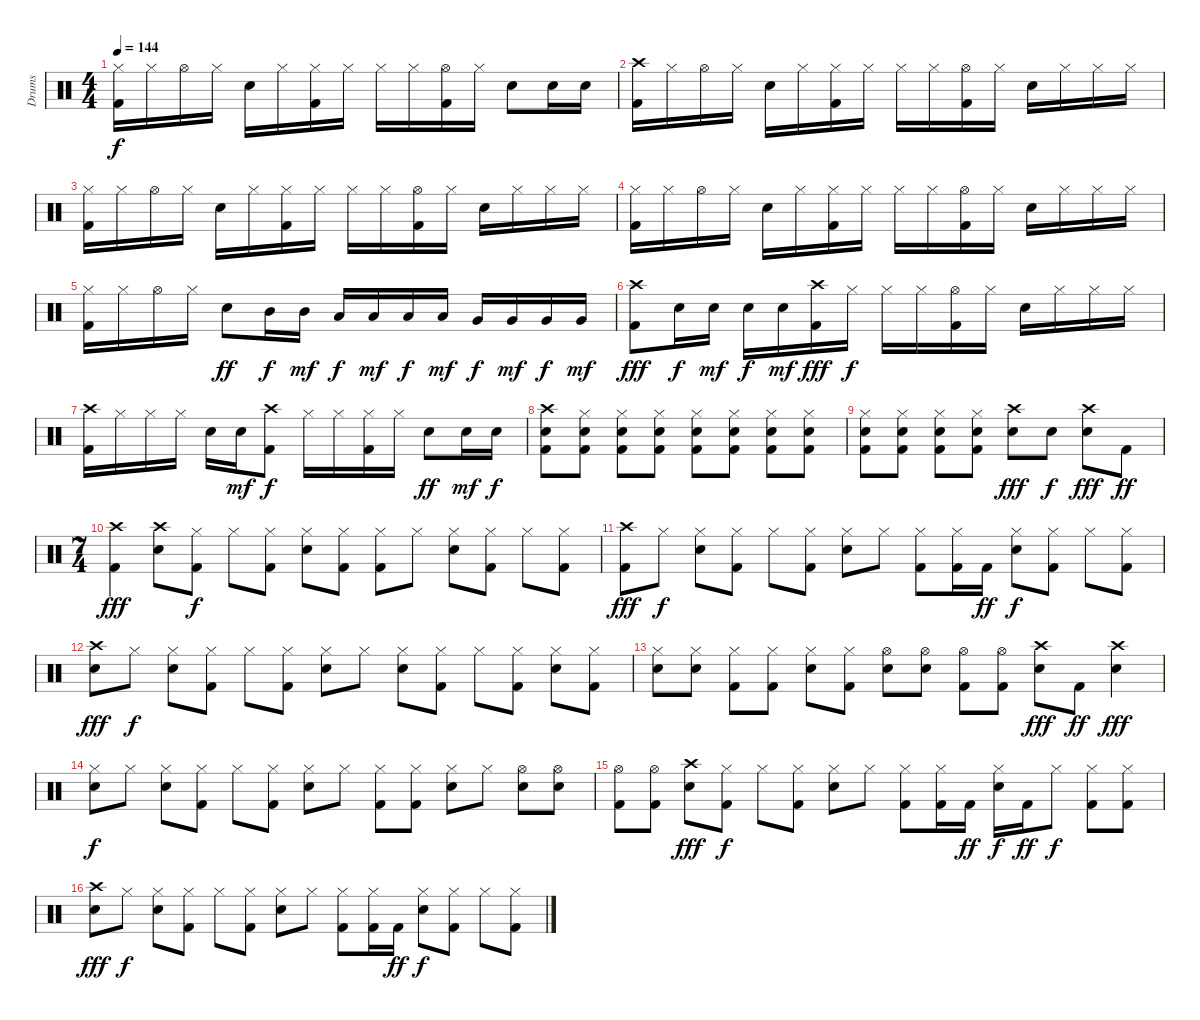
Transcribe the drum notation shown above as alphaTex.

\track ("Drums" "Drums") {instrument percussion}
\staff {score}
\articulation defaults
\ts (4 4)
\tempo 144
\clef neutral
\ks c
("Hi-Hat (closed)" "Kick (hit) 2").16{dy f} "Hi-Hat (closed)".16 "Hi-Hat (open)".16 "Hi-Hat (closed)".16 "Snare (hit) 2".16 "Hi-Hat (closed)".16 ("Hi-Hat (closed)" "Kick (hit) 2").16 "Hi-Hat (closed)".16 "Hi-Hat (closed)".16 "Hi-Hat (closed)".16 ("Hi-Hat (open)" "Kick (hit) 2").16 "Hi-Hat (closed)".16 "Snare (hit) 2".8 "Snare (hit) 2".16 "Snare (hit) 2".16 |
("Crash high (hit)" "Kick (hit) 2").16 "Hi-Hat (closed)".16 "Hi-Hat (open)".16 "Hi-Hat (closed)".16 "Snare (hit) 2".16 "Hi-Hat (closed)".16 ("Hi-Hat (closed)" "Kick (hit) 2").16 "Hi-Hat (closed)".16 "Hi-Hat (closed)".16 "Hi-Hat (closed)".16 ("Hi-Hat (open)" "Kick (hit) 2").16 "Hi-Hat (closed)".16 "Snare (hit) 2".16 "Hi-Hat (closed)".16 "Hi-Hat (closed)".16 "Hi-Hat (closed)".16 |
("Hi-Hat (closed)" "Kick (hit) 2").16 "Hi-Hat (closed)".16 "Hi-Hat (open)".16 "Hi-Hat (closed)".16 "Snare (hit) 2".16 "Hi-Hat (closed)".16 ("Hi-Hat (closed)" "Kick (hit) 2").16 "Hi-Hat (closed)".16 "Hi-Hat (closed)".16 "Hi-Hat (closed)".16 ("Hi-Hat (open)" "Kick (hit) 2").16 "Hi-Hat (closed)".16 "Snare (hit) 2".16 "Hi-Hat (closed)".16 "Hi-Hat (closed)".16 "Hi-Hat (closed)".16 |
("Hi-Hat (closed)" "Kick (hit) 2").16 "Hi-Hat (closed)".16 "Hi-Hat (open)".16 "Hi-Hat (closed)".16 "Snare (hit) 2".16 "Hi-Hat (closed)".16 ("Hi-Hat (closed)" "Kick (hit) 2").16 "Hi-Hat (closed)".16 "Hi-Hat (closed)".16 "Hi-Hat (closed)".16 ("Hi-Hat (open)" "Kick (hit) 2").16 "Hi-Hat (closed)".16 "Snare (hit) 2".16 "Hi-Hat (closed)".16 "Hi-Hat (closed)".16 "Hi-Hat (closed)".16 |
("Hi-Hat (closed)" "Kick (hit) 2").16 "Hi-Hat (closed)".16 "Hi-Hat (open)".16 "Hi-Hat (closed)".16 "Snare (hit) 2".8{dy ff} "Mid Tom (hit)".16{dy f} "Mid Tom (hit)".16{dy mf} "Low Tom (hit)".16{dy f} "Low Tom (hit)".16{dy mf} "Low Tom (hit)".16{dy f} "Low Tom (hit)".16{dy mf} "Very Low Tom (hit)".16{dy f} "Very Low Tom (hit)".16{dy mf} "Very Low Tom (hit)".16{dy f} "Very Low Tom (hit)".16{dy mf} |
("Crash high (hit)" "Kick (hit) 2").8{dy fff} "Snare (hit) 2".16{dy f} "Snare (hit) 2".16{dy mf} "Snare (hit) 2".16{dy f} "Snare (hit) 2".16{dy mf} ("Crash high (hit)" "Kick (hit) 2").16{dy fff} "Hi-Hat (closed)".16{dy f} "Hi-Hat (closed)".16 "Hi-Hat (closed)".16 ("Hi-Hat (open)" "Kick (hit) 2").16 "Hi-Hat (closed)".16 "Snare (hit) 2".16 "Hi-Hat (closed)".16 "Hi-Hat (closed)".16 "Hi-Hat (closed)".16 |
("Crash high (hit)" "Kick (hit) 2").16 "Hi-Hat (closed)".16 "Hi-Hat (closed)".16 "Hi-Hat (closed)".16 "Snare (hit) 2".16 "Snare (hit) 2".16{dy mf} ("Crash high (hit)" "Kick (hit) 2").8{dy f} "Hi-Hat (closed)".16 "Hi-Hat (closed)".16 ("Hi-Hat (closed)" "Kick (hit) 2").16 "Hi-Hat (closed)".16 "Snare (hit) 2".8{dy ff} "Snare (hit) 2".16{dy mf} "Snare (hit) 2".16{dy f} |
("Crash high (hit)" "Snare (hit) 2" "Kick (hit) 2").8 ("Hi-Hat (closed)" "Snare (hit) 2" "Kick (hit) 2").8 ("Hi-Hat (closed)" "Snare (hit) 2" "Kick (hit) 2").8 ("Hi-Hat (closed)" "Snare (hit) 2" "Kick (hit) 2").8 ("Hi-Hat (closed)" "Snare (hit) 2" "Kick (hit) 2").8 ("Hi-Hat (closed)" "Snare (hit) 2" "Kick (hit) 2").8 ("Hi-Hat (closed)" "Snare (hit) 2" "Kick (hit) 2").8 ("Hi-Hat (closed)" "Snare (hit) 2" "Kick (hit) 2").8 |
("Hi-Hat (closed)" "Snare (hit) 2" "Kick (hit) 2").8 ("Hi-Hat (closed)" "Snare (hit) 2" "Kick (hit) 2").8 ("Hi-Hat (closed)" "Snare (hit) 2" "Kick (hit) 2").8 ("Hi-Hat (closed)" "Snare (hit) 2" "Kick (hit) 2").8 ("Crash high (hit)" "Snare (hit) 2").8{dy fff} "Snare (hit) 2".8{dy f} ("Crash high (hit)" "Snare (hit) 2").8{dy fff} "Kick (hit) 2".8{dy ff} |
\ts (7 4)
("Crash high (hit)" "Kick (hit) 2").4{dy fff} ("Crash high (hit)" "Snare (hit) 2").8 ("Hi-Hat (closed)" "Kick (hit) 2").8{dy f} "Hi-Hat (closed)".8 ("Hi-Hat (closed)" "Kick (hit) 2").8 ("Hi-Hat (closed)" "Snare (hit) 2").8 ("Hi-Hat (closed)" "Kick (hit) 2").8 ("Hi-Hat (closed)" "Kick (hit) 2").8 "Hi-Hat (closed)".8 ("Hi-Hat (closed)" "Snare (hit) 2").8 ("Hi-Hat (closed)" "Kick (hit) 2").8 "Hi-Hat (closed)".8 ("Hi-Hat (closed)" "Kick (hit) 2").8 |
("Crash high (hit)" "Kick (hit) 2").8{dy fff} "Hi-Hat (closed)".8{dy f} ("Hi-Hat (closed)" "Snare (hit) 2").8 ("Hi-Hat (closed)" "Kick (hit) 2").8 "Hi-Hat (closed)".8 ("Hi-Hat (closed)" "Kick (hit) 2").8 ("Hi-Hat (closed)" "Snare (hit) 2").8 "Hi-Hat (closed)".8 ("Hi-Hat (closed)" "Kick (hit) 2").8 ("Hi-Hat (closed)" "Kick (hit) 2").16 "Kick (hit) 2".16{dy ff} ("Hi-Hat (closed)" "Snare (hit) 2").8{dy f} ("Hi-Hat (closed)" "Kick (hit) 2").8 "Hi-Hat (closed)".8 ("Hi-Hat (closed)" "Kick (hit) 2").8 |
("Crash high (hit)" "Snare (hit) 2").8{dy fff} "Hi-Hat (closed)".8{dy f} ("Hi-Hat (closed)" "Snare (hit) 2").8 ("Hi-Hat (closed)" "Kick (hit) 2").8 "Hi-Hat (closed)".8 ("Hi-Hat (closed)" "Kick (hit) 2").8 ("Hi-Hat (closed)" "Snare (hit) 2").8 "Hi-Hat (closed)".8 ("Hi-Hat (closed)" "Snare (hit) 2").8 ("Hi-Hat (closed)" "Kick (hit) 2").8 "Hi-Hat (closed)".8 ("Hi-Hat (closed)" "Kick (hit) 2").8 ("Hi-Hat (closed)" "Snare (hit) 2").8 ("Hi-Hat (closed)" "Kick (hit) 2").8 |
("Hi-Hat (closed)" "Snare (hit) 2").8 ("Hi-Hat (closed)" "Snare (hit) 2").8 ("Hi-Hat (closed)" "Kick (hit) 2").8 ("Hi-Hat (closed)" "Kick (hit) 2").8 ("Hi-Hat (closed)" "Snare (hit) 2").8 ("Hi-Hat (closed)" "Kick (hit) 2").8 ("Hi-Hat (open)" "Snare (hit) 2").8 ("Hi-Hat (open)" "Snare (hit) 2").8 ("Hi-Hat (open)" "Kick (hit) 2").8 ("Hi-Hat (open)" "Kick (hit) 2").8 ("Crash high (hit)" "Snare (hit) 2").8{dy fff} "Kick (hit) 2".8{dy ff} ("Crash high (hit)" "Snare (hit) 2").4{dy fff} |
("Hi-Hat (closed)" "Snare (hit) 2").8{dy f} "Hi-Hat (closed)".8 ("Hi-Hat (closed)" "Snare (hit) 2").8 ("Hi-Hat (closed)" "Kick (hit) 2").8 "Hi-Hat (closed)".8 ("Hi-Hat (closed)" "Kick (hit) 2").8 ("Hi-Hat (closed)" "Snare (hit) 2").8 "Hi-Hat (closed)".8 ("Hi-Hat (closed)" "Kick (hit) 2").8 ("Hi-Hat (closed)" "Kick (hit) 2").8 ("Hi-Hat (closed)" "Snare (hit) 2").8 "Hi-Hat (closed)".8 ("Hi-Hat (open)" "Snare (hit) 2").8 ("Hi-Hat (open)" "Snare (hit) 2").8 |
("Hi-Hat (open)" "Kick (hit) 2").8 ("Hi-Hat (open)" "Kick (hit) 2").8 ("Crash high (hit)" "Snare (hit) 2").8{dy fff} ("Hi-Hat (closed)" "Kick (hit) 2").8{dy f} "Hi-Hat (closed)".8 ("Hi-Hat (closed)" "Kick (hit) 2").8 ("Hi-Hat (closed)" "Snare (hit) 2").8 "Hi-Hat (closed)".8 ("Hi-Hat (closed)" "Kick (hit) 2").8 ("Hi-Hat (closed)" "Kick (hit) 2").16 "Kick (hit) 2".16{dy ff} ("Hi-Hat (closed)" "Snare (hit) 2").16{dy f} "Kick (hit) 2".16{dy ff} "Hi-Hat (closed)".8{dy f} ("Hi-Hat (closed)" "Kick (hit) 2").8 ("Hi-Hat (closed)" "Kick (hit) 2").8 |
("Crash high (hit)" "Snare (hit) 2").8{dy fff} "Hi-Hat (closed)".8{dy f} ("Hi-Hat (closed)" "Snare (hit) 2").8 ("Hi-Hat (closed)" "Kick (hit) 2").8 "Hi-Hat (closed)".8 ("Hi-Hat (closed)" "Kick (hit) 2").8 ("Hi-Hat (closed)" "Snare (hit) 2").8 "Hi-Hat (closed)".8 ("Hi-Hat (closed)" "Kick (hit) 2").8 ("Hi-Hat (closed)" "Kick (hit) 2").16 "Kick (hit) 2".16{dy ff} ("Hi-Hat (closed)" "Snare (hit) 2").8{dy f} ("Hi-Hat (closed)" "Kick (hit) 2").8 "Hi-Hat (closed)".8 ("Hi-Hat (closed)" "Kick (hit) 2").8
